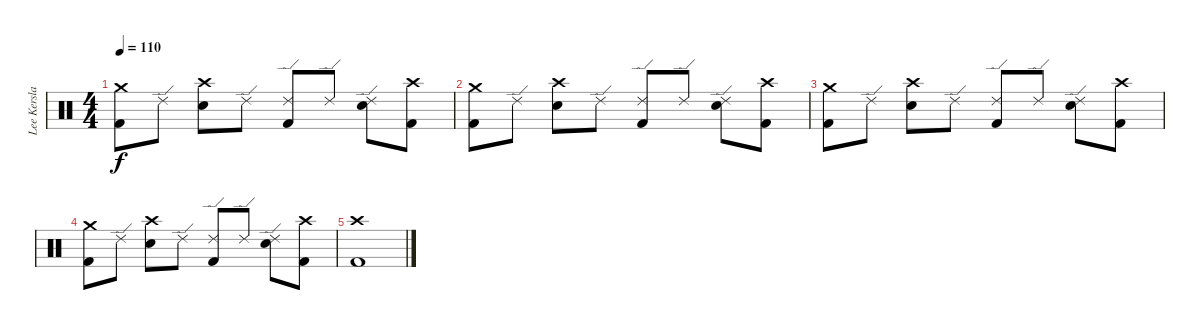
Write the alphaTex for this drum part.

\track ("Lee Kerslake - Drums" "Lee Kersla") {instrument percussion}
\staff {score}
\articulation defaults
\ts (4 4)
\tempo 110
\clef neutral
\ks c
("Crash medium (hit)" "Kick (hit) 2").8{dy f} "Ride (edge) 2".8 ("Crash high (hit)" "Snare (hit) 2").8 "Ride (edge) 2".8 ("Ride (edge) 2" "Kick (hit) 2").8 "Ride (edge) 2".8 ("Ride (edge) 2" "Snare (hit) 2").8 ("Crash high (hit)" "Kick (hit) 2").8 |
("Crash medium (hit)" "Kick (hit) 2").8 "Ride (edge) 2".8 ("Crash high (hit)" "Snare (hit) 2").8 "Ride (edge) 2".8 ("Ride (edge) 2" "Kick (hit) 2").8 "Ride (edge) 2".8 ("Ride (edge) 2" "Snare (hit) 2").8 ("Crash high (hit)" "Kick (hit) 2").8 |
("Crash medium (hit)" "Kick (hit) 2").8 "Ride (edge) 2".8 ("Crash high (hit)" "Snare (hit) 2").8 "Ride (edge) 2".8 ("Ride (edge) 2" "Kick (hit) 2").8 "Ride (edge) 2".8 ("Ride (edge) 2" "Snare (hit) 2").8 ("Crash high (hit)" "Kick (hit) 2").8 |
("Crash medium (hit)" "Kick (hit) 2").8 "Ride (edge) 2".8 ("Crash high (hit)" "Snare (hit) 2").8 "Ride (edge) 2".8 ("Ride (edge) 2" "Kick (hit) 2").8 "Ride (edge) 2".8 ("Ride (edge) 2" "Snare (hit) 2").8 ("Crash high (hit)" "Kick (hit) 2").8 |
("Crash high (hit)" "Kick (hit) 2").1
